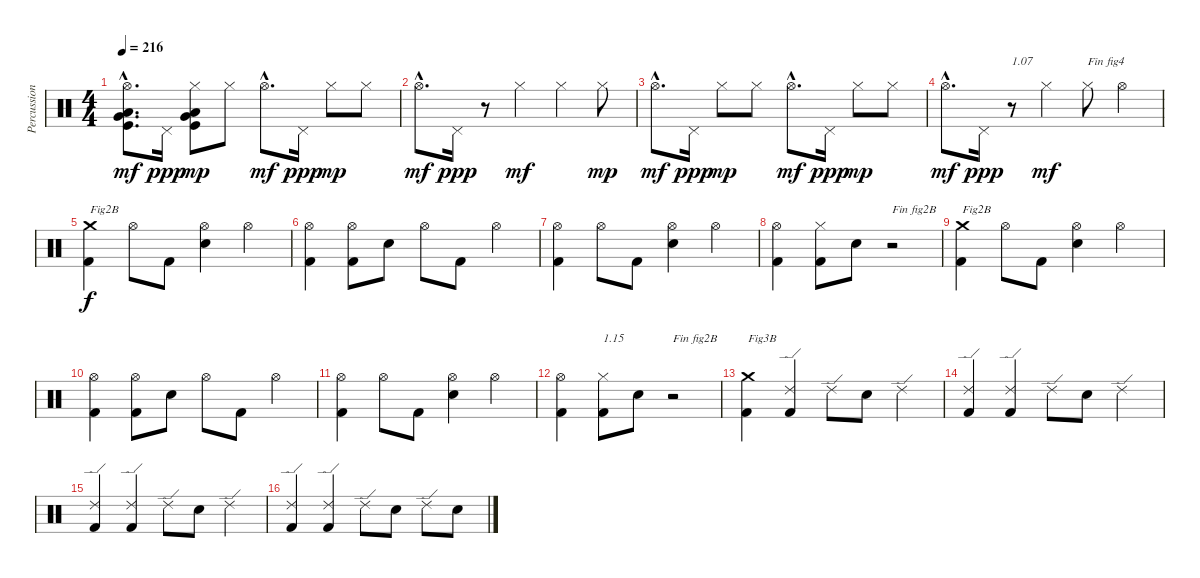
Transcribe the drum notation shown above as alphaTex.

\track ("Percussion" "Percussion") {instrument percussion}
\staff {score}
\articulation defaults
\ts (4 4)
\tempo 216
\clef neutral
\ks c
("Kick (hit)"{hac} "Low Floor Tom (hit)"{hac} "Very Low Tom (hit)"{hac} "Hi-Hat (open)"{hac}).8{d dy mf} "Pedal Hi-Hat (hit)".16{dy ppp} ("Kick (hit)" "Low Floor Tom (hit)" "Very Low Tom (hit)" "Hi-Hat (closed)").8{dy mp} "Hi-Hat (closed)".8 "Hi-Hat (open)"{hac}.8{d dy mf} "Pedal Hi-Hat (hit)".16{dy ppp} "Hi-Hat (closed)".8{dy mp} "Hi-Hat (closed)".8 |
"Hi-Hat (open)"{hac}.8{d dy mf} "Pedal Hi-Hat (hit)".16{dy ppp} r.8 "Hi-Hat (closed)".4{dy mf} "Hi-Hat (closed)".4 "Hi-Hat (closed)".8{dy mp} |
"Hi-Hat (open)"{hac}.8{d dy mf} "Pedal Hi-Hat (hit)".16{dy ppp} "Hi-Hat (closed)".8{dy mp} "Hi-Hat (closed)".8 "Hi-Hat (open)"{hac}.8{d dy mf} "Pedal Hi-Hat (hit)".16{dy ppp} "Hi-Hat (closed)".8{dy mp} "Hi-Hat (closed)".8 |
"Hi-Hat (open)"{hac}.8{d dy mf} "Pedal Hi-Hat (hit)".16{dy ppp} r.8{txt "1.07"} "Hi-Hat (closed)".4{dy mf} "Hi-Hat (closed)".8{txt "Fin fig4"} "Hi-Hat (open)".4 |
("Kick (hit) 2" "Crash medium (hit)").4{txt "Fig2B" dy f} "Hi-Hat (open)".8 "Kick (hit) 2".8 ("Electric Snare (hit)" "Hi-Hat (open)").4 "Hi-Hat (open)".4 |
("Kick (hit) 2" "Hi-Hat (open)").4 ("Kick (hit) 2" "Hi-Hat (open)").8 "Electric Snare (hit)".8 "Hi-Hat (open)".8 "Kick (hit) 2".8 "Hi-Hat (open)".4 |
("Kick (hit) 2" "Hi-Hat (open)").4 "Hi-Hat (open)".8 "Kick (hit) 2".8 ("Electric Snare (hit)" "Hi-Hat (open)").4 "Hi-Hat (open)".4 |
("Kick (hit) 2" "Hi-Hat (open)").4 ("Kick (hit) 2" "Hi-Hat (closed)").8 "Electric Snare (hit)".8 r.2{txt "Fin fig2B"} |
("Kick (hit) 2" "Crash medium (hit)").4{txt "Fig2B"} "Hi-Hat (open)".8 "Kick (hit) 2".8 ("Electric Snare (hit)" "Hi-Hat (open)").4 "Hi-Hat (open)".4 |
("Kick (hit) 2" "Hi-Hat (open)").4 ("Kick (hit) 2" "Hi-Hat (open)").8 "Electric Snare (hit)".8 "Hi-Hat (open)".8 "Kick (hit) 2".8 "Hi-Hat (open)".4 |
("Kick (hit) 2" "Hi-Hat (open)").4 "Hi-Hat (open)".8 "Kick (hit) 2".8 ("Electric Snare (hit)" "Hi-Hat (open)").4 "Hi-Hat (open)".4 |
("Kick (hit) 2" "Hi-Hat (open)").4 ("Kick (hit) 2" "Hi-Hat (closed)").8{txt "1.15"} "Electric Snare (hit)".8 r.2{txt "Fin fig2B"} |
("Kick (hit) 2" "Crash medium (hit)").4{txt "Fig3B"} ("Kick (hit) 2" "Ride (edge) 2").4 "Ride (edge) 2".8 "Electric Snare (hit)".8 "Ride (edge) 2".4 |
("Kick (hit) 2" "Ride (edge) 2").4 ("Kick (hit) 2" "Ride (edge) 2").4 "Ride (edge) 2".8 "Electric Snare (hit)".8 "Ride (edge) 2".4 |
("Kick (hit) 2" "Ride (edge) 2").4 ("Kick (hit) 2" "Ride (edge) 2").4 "Ride (edge) 2".8 "Electric Snare (hit)".8 "Ride (edge) 2".4 |
("Kick (hit) 2" "Ride (edge) 2").4 ("Kick (hit) 2" "Ride (edge) 2").4 "Ride (edge) 2".8 "Electric Snare (hit)".8 "Ride (edge) 2".8 "Electric Snare (hit)".8
